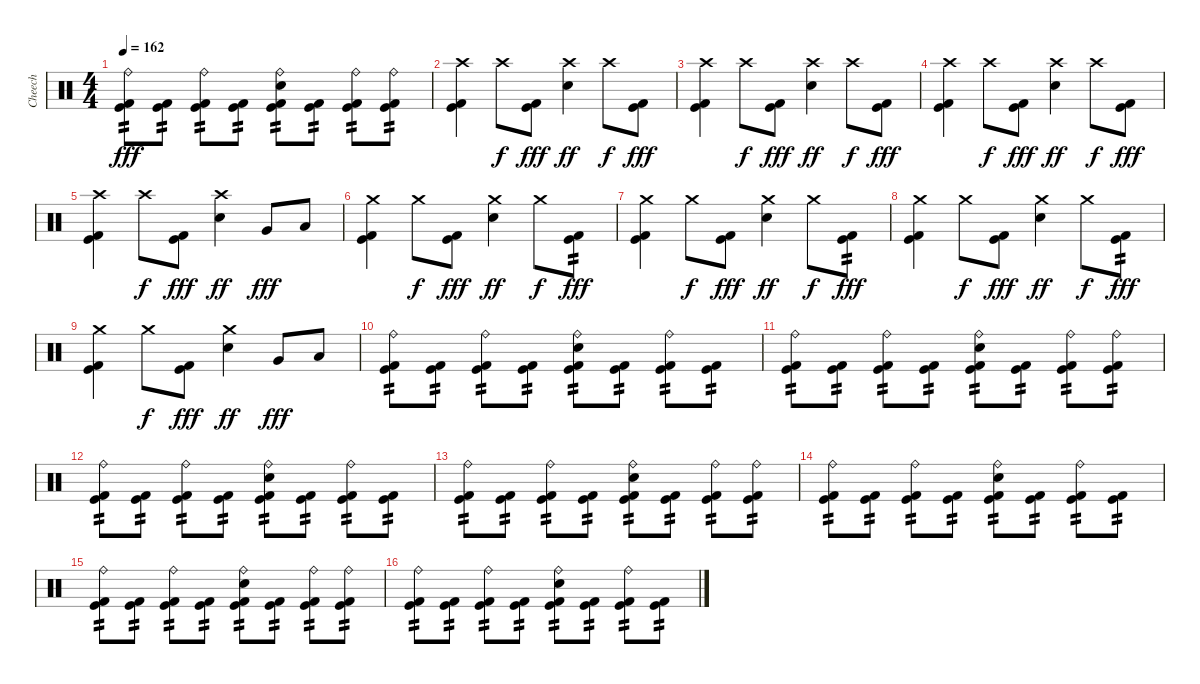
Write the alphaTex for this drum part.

\track ("Cheech" "Cheech") {instrument percussion}
\staff {score}
\articulation defaults
\ts (4 4)
\tempo 162
\clef neutral
\ks c
("Ride (bell)" "Kick (hit) 2" "Kick (hit)").8{tp 2 dy fff} ("Kick (hit) 2" "Kick (hit)").8{tp 2} ("Ride (bell)" "Kick (hit) 2" "Kick (hit)").8{tp 2} ("Kick (hit) 2" "Kick (hit)").8{tp 2} ("Ride (bell)" "Electric Snare (hit)" "Kick (hit) 2" "Kick (hit)").8{tp 2} ("Kick (hit) 2" "Kick (hit)").8{tp 2} ("Ride (bell)" "Kick (hit) 2" "Kick (hit)").8{tp 2} ("Ride (bell)" "Kick (hit) 2" "Kick (hit)").8{tp 2} |
("Crash high (hit)" "Kick (hit) 2" "Kick (hit)").4 "Crash high (hit)".8{dy f} ("Kick (hit) 2" "Kick (hit)").8{dy fff} ("Crash high (hit)" "Electric Snare (hit)").4{dy ff} "Crash high (hit)".8{dy f} ("Kick (hit) 2" "Kick (hit)").8{dy fff} |
("Crash high (hit)" "Kick (hit) 2" "Kick (hit)").4 "Crash high (hit)".8{dy f} ("Kick (hit) 2" "Kick (hit)").8{dy fff} ("Crash high (hit)" "Electric Snare (hit)").4{dy ff} "Crash high (hit)".8{dy f} ("Kick (hit) 2" "Kick (hit)").8{dy fff} |
("Crash high (hit)" "Kick (hit) 2" "Kick (hit)").4 "Crash high (hit)".8{dy f} ("Kick (hit) 2" "Kick (hit)").8{dy fff} ("Crash high (hit)" "Electric Snare (hit)").4{dy ff} "Crash high (hit)".8{dy f} ("Kick (hit) 2" "Kick (hit)").8{dy fff} |
("Crash high (hit)" "Kick (hit) 2" "Kick (hit)").4 "Crash high (hit)".8{dy f} ("Kick (hit) 2" "Kick (hit)").8{dy fff} ("Crash high (hit)" "Electric Snare (hit)").4{dy ff} "Very Low Tom (hit)".8{dy fff} "Low Floor Tom (hit)".8 |
("Crash medium (hit)" "Kick (hit) 2" "Kick (hit)").4 "Crash medium (hit)".8{dy f} ("Kick (hit) 2" "Kick (hit)").8{dy fff} ("Crash medium (hit)" "Electric Snare (hit)").4{dy ff} "Crash medium (hit)".8{dy f} ("Kick (hit) 2" "Kick (hit)").8{tp 2 dy fff} |
("Crash medium (hit)" "Kick (hit) 2" "Kick (hit)").4 "Crash medium (hit)".8{dy f} ("Kick (hit) 2" "Kick (hit)").8{dy fff} ("Crash medium (hit)" "Electric Snare (hit)").4{dy ff} "Crash medium (hit)".8{dy f} ("Kick (hit) 2" "Kick (hit)").8{tp 2 dy fff} |
("Crash medium (hit)" "Kick (hit) 2" "Kick (hit)").4 "Crash medium (hit)".8{dy f} ("Kick (hit) 2" "Kick (hit)").8{dy fff} ("Crash medium (hit)" "Electric Snare (hit)").4{dy ff} "Crash medium (hit)".8{dy f} ("Kick (hit) 2" "Kick (hit)").8{tp 2 dy fff} |
("Crash medium (hit)" "Kick (hit) 2" "Kick (hit)").4 "Crash medium (hit)".8{dy f} ("Kick (hit) 2" "Kick (hit)").8{dy fff} ("Crash medium (hit)" "Electric Snare (hit)").4{dy ff} "Very Low Tom (hit)".8{dy fff} "Low Floor Tom (hit)".8 |
("Ride (bell)" "Kick (hit) 2" "Kick (hit)").8{tp 2} ("Kick (hit) 2" "Kick (hit)").8{tp 2} ("Ride (bell)" "Kick (hit) 2" "Kick (hit)").8{tp 2} ("Kick (hit) 2" "Kick (hit)").8{tp 2} ("Ride (bell)" "Electric Snare (hit)" "Kick (hit) 2" "Kick (hit)").8{tp 2} ("Kick (hit) 2" "Kick (hit)").8{tp 2} ("Ride (bell)" "Kick (hit) 2" "Kick (hit)").8{tp 2} ("Kick (hit) 2" "Kick (hit)").8{tp 2} |
("Ride (bell)" "Kick (hit) 2" "Kick (hit)").8{tp 2} ("Kick (hit) 2" "Kick (hit)").8{tp 2} ("Ride (bell)" "Kick (hit) 2" "Kick (hit)").8{tp 2} ("Kick (hit) 2" "Kick (hit)").8{tp 2} ("Ride (bell)" "Electric Snare (hit)" "Kick (hit) 2" "Kick (hit)").8{tp 2} ("Kick (hit) 2" "Kick (hit)").8{tp 2} ("Ride (bell)" "Kick (hit) 2" "Kick (hit)").8{tp 2} ("Ride (bell)" "Kick (hit) 2" "Kick (hit)").8{tp 2} |
("Ride (bell)" "Kick (hit) 2" "Kick (hit)").8{tp 2} ("Kick (hit) 2" "Kick (hit)").8{tp 2} ("Ride (bell)" "Kick (hit) 2" "Kick (hit)").8{tp 2} ("Kick (hit) 2" "Kick (hit)").8{tp 2} ("Ride (bell)" "Electric Snare (hit)" "Kick (hit) 2" "Kick (hit)").8{tp 2} ("Kick (hit) 2" "Kick (hit)").8{tp 2} ("Ride (bell)" "Kick (hit) 2" "Kick (hit)").8{tp 2} ("Kick (hit) 2" "Kick (hit)").8{tp 2} |
("Ride (bell)" "Kick (hit) 2" "Kick (hit)").8{tp 2} ("Kick (hit) 2" "Kick (hit)").8{tp 2} ("Ride (bell)" "Kick (hit) 2" "Kick (hit)").8{tp 2} ("Kick (hit) 2" "Kick (hit)").8{tp 2} ("Ride (bell)" "Electric Snare (hit)" "Kick (hit) 2" "Kick (hit)").8{tp 2} ("Kick (hit) 2" "Kick (hit)").8{tp 2} ("Ride (bell)" "Kick (hit) 2" "Kick (hit)").8{tp 2} ("Ride (bell)" "Kick (hit) 2" "Kick (hit)").8{tp 2} |
("Ride (bell)" "Kick (hit) 2" "Kick (hit)").8{tp 2} ("Kick (hit) 2" "Kick (hit)").8{tp 2} ("Ride (bell)" "Kick (hit) 2" "Kick (hit)").8{tp 2} ("Kick (hit) 2" "Kick (hit)").8{tp 2} ("Ride (bell)" "Electric Snare (hit)" "Kick (hit) 2" "Kick (hit)").8{tp 2} ("Kick (hit) 2" "Kick (hit)").8{tp 2} ("Ride (bell)" "Kick (hit) 2" "Kick (hit)").8{tp 2} ("Kick (hit) 2" "Kick (hit)").8{tp 2} |
("Ride (bell)" "Kick (hit) 2" "Kick (hit)").8{tp 2} ("Kick (hit) 2" "Kick (hit)").8{tp 2} ("Ride (bell)" "Kick (hit) 2" "Kick (hit)").8{tp 2} ("Kick (hit) 2" "Kick (hit)").8{tp 2} ("Ride (bell)" "Electric Snare (hit)" "Kick (hit) 2" "Kick (hit)").8{tp 2} ("Kick (hit) 2" "Kick (hit)").8{tp 2} ("Ride (bell)" "Kick (hit) 2" "Kick (hit)").8{tp 2} ("Ride (bell)" "Kick (hit) 2" "Kick (hit)").8{tp 2} |
("Ride (bell)" "Kick (hit) 2" "Kick (hit)").8{tp 2} ("Kick (hit) 2" "Kick (hit)").8{tp 2} ("Ride (bell)" "Kick (hit) 2" "Kick (hit)").8{tp 2} ("Kick (hit) 2" "Kick (hit)").8{tp 2} ("Ride (bell)" "Electric Snare (hit)" "Kick (hit) 2" "Kick (hit)").8{tp 2} ("Kick (hit) 2" "Kick (hit)").8{tp 2} ("Ride (bell)" "Kick (hit) 2" "Kick (hit)").8{tp 2} ("Kick (hit) 2" "Kick (hit)").8{tp 2}
